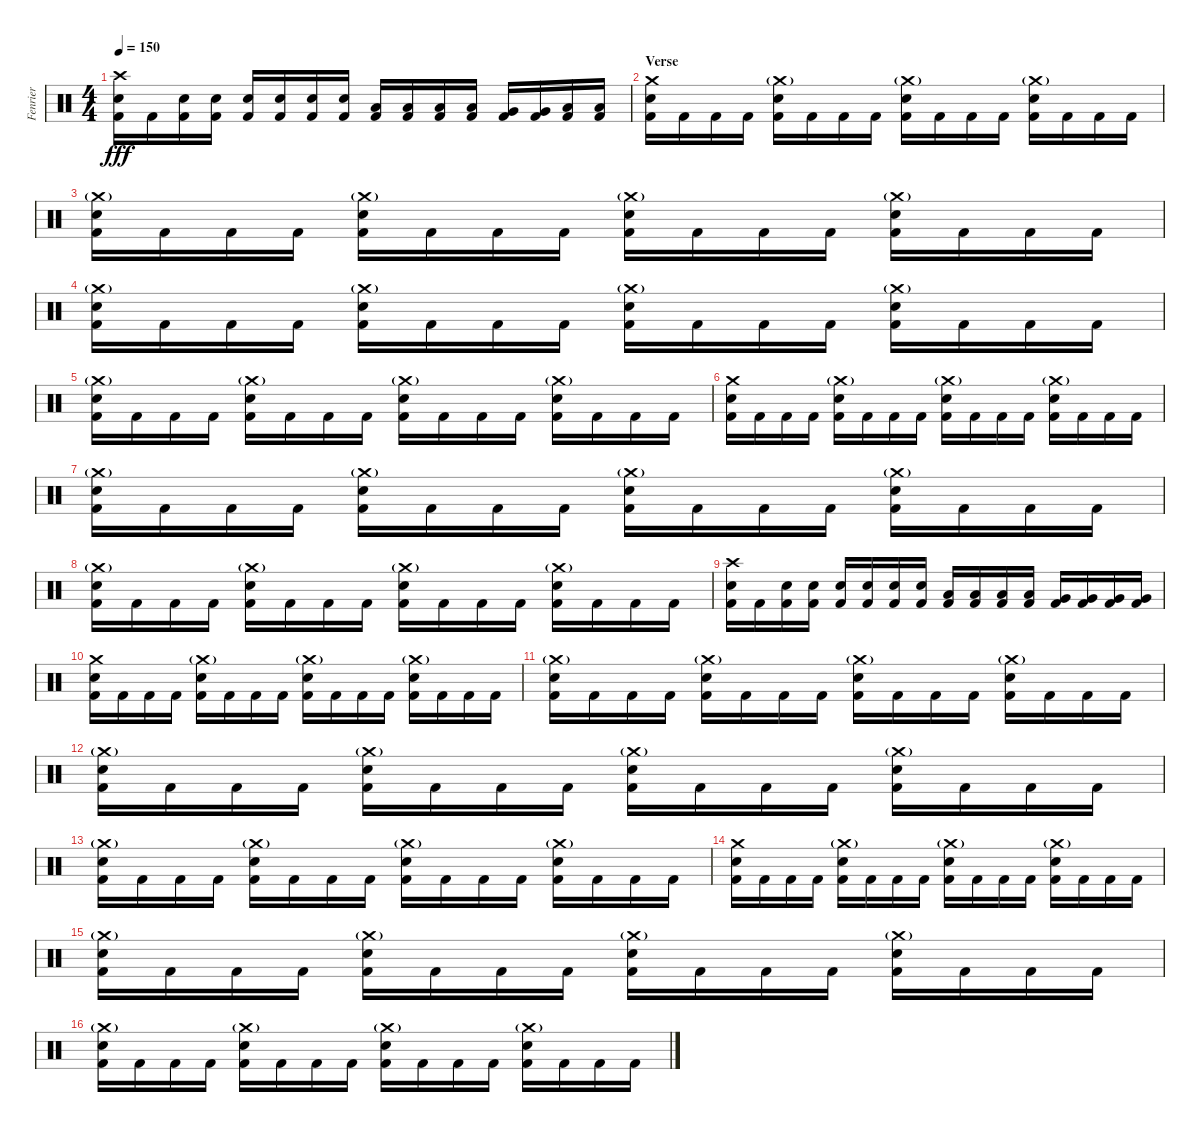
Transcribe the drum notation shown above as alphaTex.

\track ("Fenrier" "Fenrier") {instrument percussion}
\staff {score}
\articulation defaults
\ts (4 4)
\tempo 150
\clef neutral
\ks c
("Crash high (hit)" "Electric Snare (hit)" "Kick (hit) 2").16{dy fff} "Kick (hit) 2".16 ("Electric Snare (hit)" "Kick (hit) 2").16 ("Electric Snare (hit)" "Kick (hit) 2").16 ("Electric Snare (hit)" "Kick (hit) 2").16 ("Electric Snare (hit)" "Kick (hit) 2").16 ("Electric Snare (hit)" "Kick (hit) 2").16 ("Electric Snare (hit)" "Kick (hit) 2").16 ("Low Tom (hit)" "Kick (hit) 2").16 ("Low Tom (hit)" "Kick (hit) 2").16 ("Low Tom (hit)" "Kick (hit) 2").16 ("Low Tom (hit)" "Kick (hit) 2").16 ("Very Low Tom (hit)" "Kick (hit) 2").16 ("Very Low Tom (hit)" "Kick (hit) 2").16 ("Low Floor Tom (hit)" "Kick (hit) 2").16 ("Low Floor Tom (hit)" "Kick (hit) 2").16 |
\section ("" "Verse")
("Crash medium (hit)" "Electric Snare (hit)" "Kick (hit) 2").16 "Kick (hit) 2".16 "Kick (hit) 2".16 "Kick (hit) 2".16 ("Crash medium (hit)"{g} "Electric Snare (hit)" "Kick (hit) 2").16 "Kick (hit) 2".16 "Kick (hit) 2".16 "Kick (hit) 2".16 ("Crash medium (hit)"{g} "Electric Snare (hit)" "Kick (hit) 2").16 "Kick (hit) 2".16 "Kick (hit) 2".16 "Kick (hit) 2".16 ("Crash medium (hit)"{g} "Electric Snare (hit)" "Kick (hit) 2").16 "Kick (hit) 2".16 "Kick (hit) 2".16 "Kick (hit) 2".16 |
("Crash medium (hit)"{g} "Electric Snare (hit)" "Kick (hit) 2").16 "Kick (hit) 2".16 "Kick (hit) 2".16 "Kick (hit) 2".16 ("Crash medium (hit)"{g} "Electric Snare (hit)" "Kick (hit) 2").16 "Kick (hit) 2".16 "Kick (hit) 2".16 "Kick (hit) 2".16 ("Crash medium (hit)"{g} "Electric Snare (hit)" "Kick (hit) 2").16 "Kick (hit) 2".16 "Kick (hit) 2".16 "Kick (hit) 2".16 ("Crash medium (hit)"{g} "Electric Snare (hit)" "Kick (hit) 2").16 "Kick (hit) 2".16 "Kick (hit) 2".16 "Kick (hit) 2".16 |
("Crash medium (hit)"{g} "Electric Snare (hit)" "Kick (hit) 2").16 "Kick (hit) 2".16 "Kick (hit) 2".16 "Kick (hit) 2".16 ("Crash medium (hit)"{g} "Electric Snare (hit)" "Kick (hit) 2").16 "Kick (hit) 2".16 "Kick (hit) 2".16 "Kick (hit) 2".16 ("Crash medium (hit)"{g} "Electric Snare (hit)" "Kick (hit) 2").16 "Kick (hit) 2".16 "Kick (hit) 2".16 "Kick (hit) 2".16 ("Crash medium (hit)"{g} "Electric Snare (hit)" "Kick (hit) 2").16 "Kick (hit) 2".16 "Kick (hit) 2".16 "Kick (hit) 2".16 |
("Crash medium (hit)"{g} "Electric Snare (hit)" "Kick (hit) 2").16 "Kick (hit) 2".16 "Kick (hit) 2".16 "Kick (hit) 2".16 ("Crash medium (hit)"{g} "Electric Snare (hit)" "Kick (hit) 2").16 "Kick (hit) 2".16 "Kick (hit) 2".16 "Kick (hit) 2".16 ("Crash medium (hit)"{g} "Electric Snare (hit)" "Kick (hit) 2").16 "Kick (hit) 2".16 "Kick (hit) 2".16 "Kick (hit) 2".16 ("Crash medium (hit)"{g} "Electric Snare (hit)" "Kick (hit) 2").16 "Kick (hit) 2".16 "Kick (hit) 2".16 "Kick (hit) 2".16 |
("Crash medium (hit)" "Electric Snare (hit)" "Kick (hit) 2").16 "Kick (hit) 2".16 "Kick (hit) 2".16 "Kick (hit) 2".16 ("Crash medium (hit)"{g} "Electric Snare (hit)" "Kick (hit) 2").16 "Kick (hit) 2".16 "Kick (hit) 2".16 "Kick (hit) 2".16 ("Crash medium (hit)"{g} "Electric Snare (hit)" "Kick (hit) 2").16 "Kick (hit) 2".16 "Kick (hit) 2".16 "Kick (hit) 2".16 ("Crash medium (hit)"{g} "Electric Snare (hit)" "Kick (hit) 2").16 "Kick (hit) 2".16 "Kick (hit) 2".16 "Kick (hit) 2".16 |
("Crash medium (hit)"{g} "Electric Snare (hit)" "Kick (hit) 2").16 "Kick (hit) 2".16 "Kick (hit) 2".16 "Kick (hit) 2".16 ("Crash medium (hit)"{g} "Electric Snare (hit)" "Kick (hit) 2").16 "Kick (hit) 2".16 "Kick (hit) 2".16 "Kick (hit) 2".16 ("Crash medium (hit)"{g} "Electric Snare (hit)" "Kick (hit) 2").16 "Kick (hit) 2".16 "Kick (hit) 2".16 "Kick (hit) 2".16 ("Crash medium (hit)"{g} "Electric Snare (hit)" "Kick (hit) 2").16 "Kick (hit) 2".16 "Kick (hit) 2".16 "Kick (hit) 2".16 |
("Crash medium (hit)"{g} "Electric Snare (hit)" "Kick (hit) 2").16 "Kick (hit) 2".16 "Kick (hit) 2".16 "Kick (hit) 2".16 ("Crash medium (hit)"{g} "Electric Snare (hit)" "Kick (hit) 2").16 "Kick (hit) 2".16 "Kick (hit) 2".16 "Kick (hit) 2".16 ("Crash medium (hit)"{g} "Electric Snare (hit)" "Kick (hit) 2").16 "Kick (hit) 2".16 "Kick (hit) 2".16 "Kick (hit) 2".16 ("Crash medium (hit)"{g} "Electric Snare (hit)" "Kick (hit) 2").16 "Kick (hit) 2".16 "Kick (hit) 2".16 "Kick (hit) 2".16 |
("Crash high (hit)" "Electric Snare (hit)" "Kick (hit) 2").16 "Kick (hit) 2".16 ("Electric Snare (hit)" "Kick (hit) 2").16 ("Electric Snare (hit)" "Kick (hit) 2").16 ("Electric Snare (hit)" "Kick (hit) 2").16 ("Electric Snare (hit)" "Kick (hit) 2").16 ("Electric Snare (hit)" "Kick (hit) 2").16 ("Electric Snare (hit)" "Kick (hit) 2").16 ("Low Tom (hit)" "Kick (hit) 2").16 ("Low Tom (hit)" "Kick (hit) 2").16 ("Low Tom (hit)" "Kick (hit) 2").16 ("Low Tom (hit)" "Kick (hit) 2").16 ("Very Low Tom (hit)" "Kick (hit) 2").16 ("Very Low Tom (hit)" "Kick (hit) 2").16 ("Very Low Tom (hit)" "Kick (hit) 2").16 ("Very Low Tom (hit)" "Kick (hit) 2").16 |
("Crash medium (hit)" "Electric Snare (hit)" "Kick (hit) 2").16 "Kick (hit) 2".16 "Kick (hit) 2".16 "Kick (hit) 2".16 ("Crash medium (hit)"{g} "Electric Snare (hit)" "Kick (hit) 2").16 "Kick (hit) 2".16 "Kick (hit) 2".16 "Kick (hit) 2".16 ("Crash medium (hit)"{g} "Electric Snare (hit)" "Kick (hit) 2").16 "Kick (hit) 2".16 "Kick (hit) 2".16 "Kick (hit) 2".16 ("Crash medium (hit)"{g} "Electric Snare (hit)" "Kick (hit) 2").16 "Kick (hit) 2".16 "Kick (hit) 2".16 "Kick (hit) 2".16 |
("Crash medium (hit)"{g} "Electric Snare (hit)" "Kick (hit) 2").16 "Kick (hit) 2".16 "Kick (hit) 2".16 "Kick (hit) 2".16 ("Crash medium (hit)"{g} "Electric Snare (hit)" "Kick (hit) 2").16 "Kick (hit) 2".16 "Kick (hit) 2".16 "Kick (hit) 2".16 ("Crash medium (hit)"{g} "Electric Snare (hit)" "Kick (hit) 2").16 "Kick (hit) 2".16 "Kick (hit) 2".16 "Kick (hit) 2".16 ("Crash medium (hit)"{g} "Electric Snare (hit)" "Kick (hit) 2").16 "Kick (hit) 2".16 "Kick (hit) 2".16 "Kick (hit) 2".16 |
("Crash medium (hit)"{g} "Electric Snare (hit)" "Kick (hit) 2").16 "Kick (hit) 2".16 "Kick (hit) 2".16 "Kick (hit) 2".16 ("Crash medium (hit)"{g} "Electric Snare (hit)" "Kick (hit) 2").16 "Kick (hit) 2".16 "Kick (hit) 2".16 "Kick (hit) 2".16 ("Crash medium (hit)"{g} "Electric Snare (hit)" "Kick (hit) 2").16 "Kick (hit) 2".16 "Kick (hit) 2".16 "Kick (hit) 2".16 ("Crash medium (hit)"{g} "Electric Snare (hit)" "Kick (hit) 2").16 "Kick (hit) 2".16 "Kick (hit) 2".16 "Kick (hit) 2".16 |
("Crash medium (hit)"{g} "Electric Snare (hit)" "Kick (hit) 2").16 "Kick (hit) 2".16 "Kick (hit) 2".16 "Kick (hit) 2".16 ("Crash medium (hit)"{g} "Electric Snare (hit)" "Kick (hit) 2").16 "Kick (hit) 2".16 "Kick (hit) 2".16 "Kick (hit) 2".16 ("Crash medium (hit)"{g} "Electric Snare (hit)" "Kick (hit) 2").16 "Kick (hit) 2".16 "Kick (hit) 2".16 "Kick (hit) 2".16 ("Crash medium (hit)"{g} "Electric Snare (hit)" "Kick (hit) 2").16 "Kick (hit) 2".16 "Kick (hit) 2".16 "Kick (hit) 2".16 |
("Crash medium (hit)" "Electric Snare (hit)" "Kick (hit) 2").16 "Kick (hit) 2".16 "Kick (hit) 2".16 "Kick (hit) 2".16 ("Crash medium (hit)"{g} "Electric Snare (hit)" "Kick (hit) 2").16 "Kick (hit) 2".16 "Kick (hit) 2".16 "Kick (hit) 2".16 ("Crash medium (hit)"{g} "Electric Snare (hit)" "Kick (hit) 2").16 "Kick (hit) 2".16 "Kick (hit) 2".16 "Kick (hit) 2".16 ("Crash medium (hit)"{g} "Electric Snare (hit)" "Kick (hit) 2").16 "Kick (hit) 2".16 "Kick (hit) 2".16 "Kick (hit) 2".16 |
("Crash medium (hit)"{g} "Electric Snare (hit)" "Kick (hit) 2").16 "Kick (hit) 2".16 "Kick (hit) 2".16 "Kick (hit) 2".16 ("Crash medium (hit)"{g} "Electric Snare (hit)" "Kick (hit) 2").16 "Kick (hit) 2".16 "Kick (hit) 2".16 "Kick (hit) 2".16 ("Crash medium (hit)"{g} "Electric Snare (hit)" "Kick (hit) 2").16 "Kick (hit) 2".16 "Kick (hit) 2".16 "Kick (hit) 2".16 ("Crash medium (hit)"{g} "Electric Snare (hit)" "Kick (hit) 2").16 "Kick (hit) 2".16 "Kick (hit) 2".16 "Kick (hit) 2".16 |
("Crash medium (hit)"{g} "Electric Snare (hit)" "Kick (hit) 2").16 "Kick (hit) 2".16 "Kick (hit) 2".16 "Kick (hit) 2".16 ("Crash medium (hit)"{g} "Electric Snare (hit)" "Kick (hit) 2").16 "Kick (hit) 2".16 "Kick (hit) 2".16 "Kick (hit) 2".16 ("Crash medium (hit)"{g} "Electric Snare (hit)" "Kick (hit) 2").16 "Kick (hit) 2".16 "Kick (hit) 2".16 "Kick (hit) 2".16 ("Crash medium (hit)"{g} "Electric Snare (hit)" "Kick (hit) 2").16 "Kick (hit) 2".16 "Kick (hit) 2".16 "Kick (hit) 2".16
